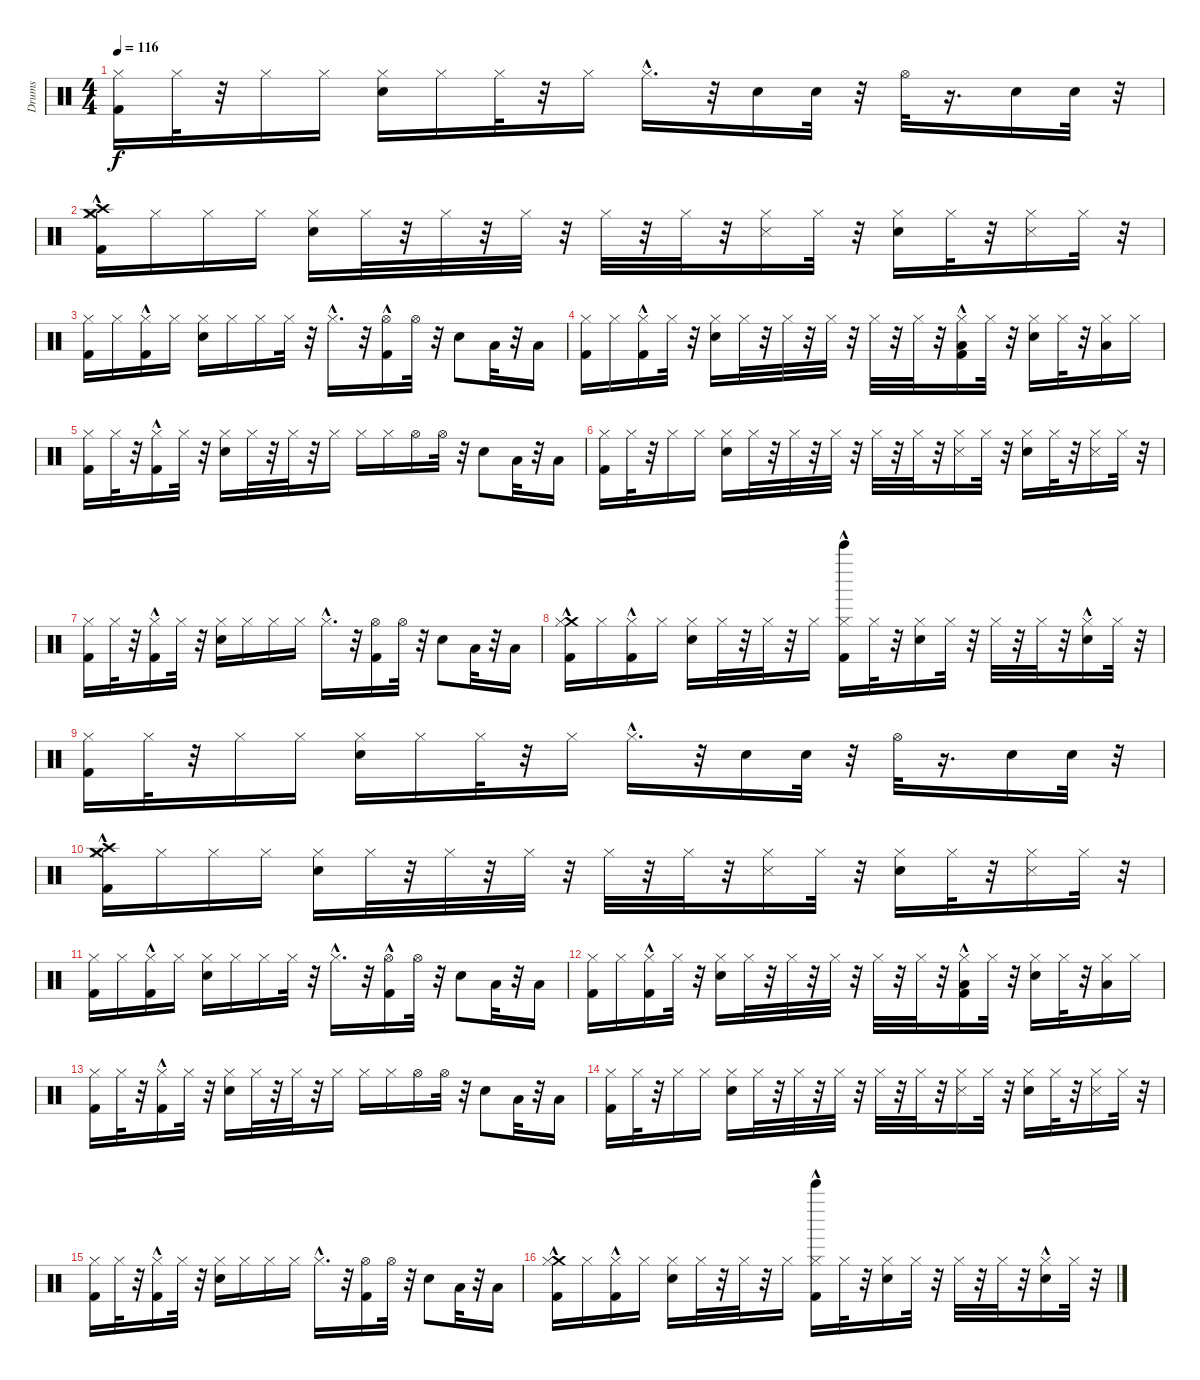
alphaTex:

\track ("Drums" "Drums") {instrument percussion}
\staff {score}
\articulation defaults
\ts (4 4)
\tempo 116
\clef neutral
\ks c
("Hi-Hat (closed)" "Kick (hit) 2").16{dy f} "Hi-Hat (closed)".32 r.32 "Hi-Hat (closed)".16 "Hi-Hat (closed)".16 ("Hi-Hat (closed)" "Snare (hit) 2").16 "Hi-Hat (closed)".16 "Hi-Hat (closed)".32 r.32 "Hi-Hat (closed)".16 "Hi-Hat (closed)"{hac}.16{d} r.32 "Snare (hit) 2".16 "Snare (hit) 2".32 r.32 "Hi-Hat (open)".32 r.16{d} "Snare (hit) 2".16 "Snare (hit) 2".32 r.32 |
("Kick (hit) 2"{hac} "Hi-Hat (closed)" "Crash medium (hit)" "Crash high (hit)").16 "Hi-Hat (closed)".16 "Hi-Hat (closed)".16 "Hi-Hat (closed)".16 ("Snare (hit) 2" "Hi-Hat (closed)").16 "Hi-Hat (closed)".32 r.32 "Hi-Hat (closed)".32 r.32 "Hi-Hat (closed)".32 r.32 "Hi-Hat (closed)".32 r.32 "Hi-Hat (closed)".32 r.32 ("Hi-Hat (closed)" "Snare (side stick) 3").16 "Hi-Hat (closed)".32 r.32 ("Hi-Hat (closed)" "Snare (hit) 2").16 "Hi-Hat (closed)".32 r.32 ("Snare (side stick) 3" "Hi-Hat (closed)").16 "Hi-Hat (closed)".32 r.32 |
("Kick (hit) 2" "Hi-Hat (closed)").16 "Hi-Hat (closed)".16 ("Kick (hit) 2"{hac} "Hi-Hat (closed)").16 "Hi-Hat (closed)".16 ("Snare (hit) 2" "Hi-Hat (closed)").16 "Hi-Hat (closed)".16 "Hi-Hat (closed)".16 "Hi-Hat (closed)".32 r.32 "Hi-Hat (closed)"{hac}.16{d} r.32 ("Hi-Hat (open)" "Kick (hit) 2"{hac}).16 "Hi-Hat (open)".32 r.32 "Snare (hit) 2".8 "Low Tom (hit)".32 r.32 "Low Tom (hit)".16 |
("Hi-Hat (closed)" "Kick (hit) 2").16 "Hi-Hat (closed)".16 ("Kick (hit) 2"{hac} "Hi-Hat (closed)").16 "Hi-Hat (closed)".32 r.32 ("Hi-Hat (closed)" "Snare (hit) 2").16 "Hi-Hat (closed)".32 r.32 "Hi-Hat (closed)".32 r.32 "Hi-Hat (closed)".32 r.32 "Hi-Hat (closed)".32 r.32 "Hi-Hat (closed)".32 r.32 ("Kick (hit) 2"{hac} "Hi-Hat (closed)" "Low Tom (hit)").16 "Hi-Hat (closed)".32 r.32 ("Snare (hit) 2" "Hi-Hat (closed)").16 "Hi-Hat (closed)".32 r.32 ("Low Floor Tom (hit)" "Hi-Hat (closed)").16 "Hi-Hat (closed)".16 |
("Kick (hit) 2" "Hi-Hat (closed)").16 "Hi-Hat (closed)".32 r.32 ("Kick (hit) 2"{hac} "Hi-Hat (closed)").16 "Hi-Hat (closed)".32 r.32 ("Hi-Hat (closed)" "Snare (hit) 2").16 "Hi-Hat (closed)".32 r.32 "Hi-Hat (closed)".32 r.32 "Hi-Hat (closed)".16 "Hi-Hat (closed)".16 "Hi-Hat (closed)".16 "Hi-Hat (open)".16 "Hi-Hat (open)".32 r.32 "Snare (hit) 2".8 "Low Tom (hit)".32 r.32 "Low Tom (hit)".16 |
("Kick (hit) 2" "Hi-Hat (closed)").16 "Hi-Hat (closed)".32 r.32 "Hi-Hat (closed)".16 "Hi-Hat (closed)".16 ("Snare (hit) 2" "Hi-Hat (closed)").16 "Hi-Hat (closed)".32 r.32 "Hi-Hat (closed)".32 r.32 "Hi-Hat (closed)".32 r.32 "Hi-Hat (closed)".32 r.32 "Hi-Hat (closed)".32 r.32 ("Snare (side stick) 3" "Hi-Hat (closed)").16 "Hi-Hat (closed)".32 r.32 ("Snare (hit) 2" "Hi-Hat (closed)").16 "Hi-Hat (closed)".32 r.32 ("Snare (side stick) 3" "Hi-Hat (closed)").16 "Hi-Hat (closed)".32 r.32 |
("Hi-Hat (closed)" "Kick (hit) 2").16 "Hi-Hat (closed)".32 r.32 ("Hi-Hat (closed)" "Kick (hit) 2"{hac}).16 "Hi-Hat (closed)".32 r.32 ("Hi-Hat (closed)" "Snare (hit) 2").16 "Hi-Hat (closed)".16 "Hi-Hat (closed)".16 "Hi-Hat (closed)".16 "Hi-Hat (closed)"{hac}.16{d} r.32 ("Kick (hit) 2" "Hi-Hat (open)").16 "Hi-Hat (open)".32 r.32 "Snare (hit) 2".8 "Low Tom (hit)".32 r.32 "Low Tom (hit)".16 |
("Crash medium (hit)"{hac} "Kick (hit) 2" "Hi-Hat (closed)").16 "Hi-Hat (closed)".16 ("Kick (hit) 2"{hac} "Hi-Hat (closed)").16 "Hi-Hat (closed)".16 ("Snare (hit) 2" "Hi-Hat (closed)").16 "Hi-Hat (closed)".32 r.32 "Hi-Hat (closed)".32 r.32 "Hi-Hat (closed)".16 ("Bell Tree (hit)" "Kick (hit) 2"{hac} "Hi-Hat (closed)").16 "Hi-Hat (closed)".32 r.32 ("Snare (hit) 2" "Hi-Hat (closed)").16 "Hi-Hat (closed)".32 r.32 "Hi-Hat (closed)".32 r.32 "Hi-Hat (closed)".32 r.32 ("Snare (hit) 2"{hac} "Hi-Hat (closed)").16 "Hi-Hat (closed)".32 r.32 |
("Kick (hit) 2" "Hi-Hat (closed)").16 "Hi-Hat (closed)".32 r.32 "Hi-Hat (closed)".16 "Hi-Hat (closed)".16 ("Hi-Hat (closed)" "Snare (hit) 2").16 "Hi-Hat (closed)".16 "Hi-Hat (closed)".32 r.32 "Hi-Hat (closed)".16 "Hi-Hat (closed)"{hac}.16{d} r.32 "Snare (hit) 2".16 "Snare (hit) 2".32 r.32 "Hi-Hat (open)".32 r.16{d} "Snare (hit) 2".16 "Snare (hit) 2".32 r.32 |
("Kick (hit) 2"{hac} "Hi-Hat (closed)" "Crash medium (hit)" "Crash high (hit)").16 "Hi-Hat (closed)".16 "Hi-Hat (closed)".16 "Hi-Hat (closed)".16 ("Snare (hit) 2" "Hi-Hat (closed)").16 "Hi-Hat (closed)".32 r.32 "Hi-Hat (closed)".32 r.32 "Hi-Hat (closed)".32 r.32 "Hi-Hat (closed)".32 r.32 "Hi-Hat (closed)".32 r.32 ("Snare (side stick) 3" "Hi-Hat (closed)").16 "Hi-Hat (closed)".32 r.32 ("Hi-Hat (closed)" "Snare (hit) 2").16 "Hi-Hat (closed)".32 r.32 ("Snare (side stick) 3" "Hi-Hat (closed)").16 "Hi-Hat (closed)".32 r.32 |
("Hi-Hat (closed)" "Kick (hit) 2").16 "Hi-Hat (closed)".16 ("Hi-Hat (closed)" "Kick (hit) 2"{hac}).16 "Hi-Hat (closed)".16 ("Snare (hit) 2" "Hi-Hat (closed)").16 "Hi-Hat (closed)".16 "Hi-Hat (closed)".16 "Hi-Hat (closed)".32 r.32 "Hi-Hat (closed)"{hac}.16{d} r.32 ("Kick (hit) 2"{hac} "Hi-Hat (open)").16 "Hi-Hat (open)".32 r.32 "Snare (hit) 2".8 "Low Tom (hit)".32 r.32 "Low Tom (hit)".16 |
("Hi-Hat (closed)" "Kick (hit) 2").16 "Hi-Hat (closed)".16 ("Kick (hit) 2"{hac} "Hi-Hat (closed)").16 "Hi-Hat (closed)".32 r.32 ("Hi-Hat (closed)" "Snare (hit) 2").16 "Hi-Hat (closed)".32 r.32 "Hi-Hat (closed)".32 r.32 "Hi-Hat (closed)".32 r.32 "Hi-Hat (closed)".32 r.32 "Hi-Hat (closed)".32 r.32 ("Low Tom (hit)" "Hi-Hat (closed)" "Kick (hit) 2"{hac}).16 "Hi-Hat (closed)".32 r.32 ("Snare (hit) 2" "Hi-Hat (closed)").16 "Hi-Hat (closed)".32 r.32 ("Low Floor Tom (hit)" "Hi-Hat (closed)").16 "Hi-Hat (closed)".16 |
("Hi-Hat (closed)" "Kick (hit) 2").16 "Hi-Hat (closed)".32 r.32 ("Hi-Hat (closed)" "Kick (hit) 2"{hac}).16 "Hi-Hat (closed)".32 r.32 ("Hi-Hat (closed)" "Snare (hit) 2").16 "Hi-Hat (closed)".32 r.32 "Hi-Hat (closed)".32 r.32 "Hi-Hat (closed)".16 "Hi-Hat (closed)".16 "Hi-Hat (closed)".16 "Hi-Hat (open)".16 "Hi-Hat (open)".32 r.32 "Snare (hit) 2".8 "Low Tom (hit)".32 r.32 "Low Tom (hit)".16 |
("Hi-Hat (closed)" "Kick (hit) 2").16 "Hi-Hat (closed)".32 r.32 "Hi-Hat (closed)".16 "Hi-Hat (closed)".16 ("Hi-Hat (closed)" "Snare (hit) 2").16 "Hi-Hat (closed)".32 r.32 "Hi-Hat (closed)".32 r.32 "Hi-Hat (closed)".32 r.32 "Hi-Hat (closed)".32 r.32 "Hi-Hat (closed)".32 r.32 ("Hi-Hat (closed)" "Snare (side stick) 3").16 "Hi-Hat (closed)".32 r.32 ("Hi-Hat (closed)" "Snare (hit) 2").16 "Hi-Hat (closed)".32 r.32 ("Hi-Hat (closed)" "Snare (side stick) 3").16 "Hi-Hat (closed)".32 r.32 |
("Kick (hit) 2" "Hi-Hat (closed)").16 "Hi-Hat (closed)".32 r.32 ("Kick (hit) 2"{hac} "Hi-Hat (closed)").16 "Hi-Hat (closed)".32 r.32 ("Snare (hit) 2" "Hi-Hat (closed)").16 "Hi-Hat (closed)".16 "Hi-Hat (closed)".16 "Hi-Hat (closed)".16 "Hi-Hat (closed)"{hac}.16{d} r.32 ("Kick (hit) 2" "Hi-Hat (open)").16 "Hi-Hat (open)".32 r.32 "Snare (hit) 2".8 "Low Tom (hit)".32 r.32 "Low Tom (hit)".16 |
("Kick (hit) 2" "Crash medium (hit)"{hac} "Hi-Hat (closed)").16 "Hi-Hat (closed)".16 ("Hi-Hat (closed)" "Kick (hit) 2"{hac}).16 "Hi-Hat (closed)".16 ("Hi-Hat (closed)" "Snare (hit) 2").16 "Hi-Hat (closed)".32 r.32 "Hi-Hat (closed)".32 r.32 "Hi-Hat (closed)".16 ("Bell Tree (hit)" "Kick (hit) 2"{hac} "Hi-Hat (closed)").16 "Hi-Hat (closed)".32 r.32 ("Snare (hit) 2" "Hi-Hat (closed)").16 "Hi-Hat (closed)".32 r.32 "Hi-Hat (closed)".32 r.32 "Hi-Hat (closed)".32 r.32 ("Snare (hit) 2"{hac} "Hi-Hat (closed)").16 "Hi-Hat (closed)".32 r.32
